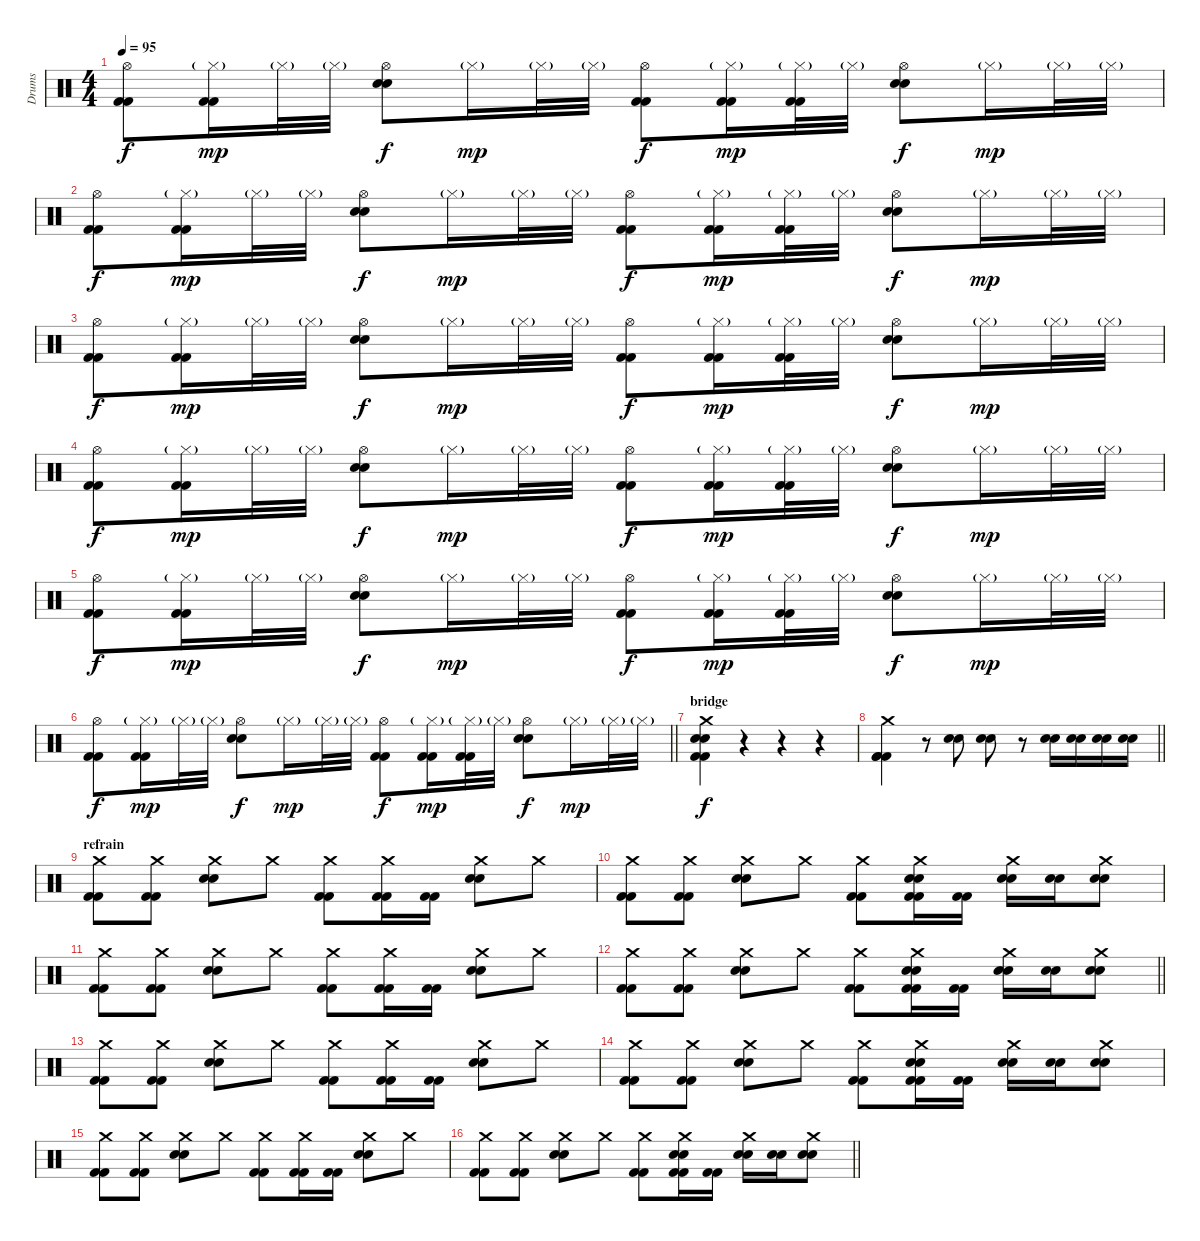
\track ("Drums" "Drums") {instrument percussion}
\staff {score}
\articulation defaults
\ts (4 4)
\tempo 95
\clef neutral
\ks c
("Hi-Hat (open)" "Kick (hit) 2" "Kick (hit) 2").8{dy f} ("Hi-Hat (closed)"{g} "Kick (hit) 2" "Kick (hit) 2").16{dy mp} "Hi-Hat (closed)"{g}.32 "Hi-Hat (closed)"{g}.32 ("Hi-Hat (open)" "Snare (hit) 2" "Snare (hit) 2").8{dy f} "Hi-Hat (closed)"{g}.16{dy mp} "Hi-Hat (closed)"{g}.32 "Hi-Hat (closed)"{g}.32 ("Hi-Hat (open)" "Kick (hit) 2" "Kick (hit) 2").8{dy f} ("Hi-Hat (closed)"{g} "Kick (hit) 2" "Kick (hit) 2").16{dy mp} ("Hi-Hat (closed)"{g} "Kick (hit) 2" "Kick (hit) 2").32 "Hi-Hat (closed)"{g}.32 ("Hi-Hat (open)" "Snare (hit) 2" "Snare (hit) 2").8{dy f} "Hi-Hat (closed)"{g}.16{dy mp} "Hi-Hat (closed)"{g}.32 "Hi-Hat (closed)"{g}.32 |
("Hi-Hat (open)" "Kick (hit) 2" "Kick (hit) 2").8{dy f} ("Hi-Hat (closed)"{g} "Kick (hit) 2" "Kick (hit) 2").16{dy mp} "Hi-Hat (closed)"{g}.32 "Hi-Hat (closed)"{g}.32 ("Hi-Hat (open)" "Snare (hit) 2" "Snare (hit) 2").8{dy f} "Hi-Hat (closed)"{g}.16{dy mp} "Hi-Hat (closed)"{g}.32 "Hi-Hat (closed)"{g}.32 ("Hi-Hat (open)" "Kick (hit) 2" "Kick (hit) 2").8{dy f} ("Hi-Hat (closed)"{g} "Kick (hit) 2" "Kick (hit) 2").16{dy mp} ("Hi-Hat (closed)"{g} "Kick (hit) 2" "Kick (hit) 2").32 "Hi-Hat (closed)"{g}.32 ("Hi-Hat (open)" "Snare (hit) 2" "Snare (hit) 2").8{dy f} "Hi-Hat (closed)"{g}.16{dy mp} "Hi-Hat (closed)"{g}.32 "Hi-Hat (closed)"{g}.32 |
("Hi-Hat (open)" "Kick (hit) 2" "Kick (hit) 2").8{dy f} ("Hi-Hat (closed)"{g} "Kick (hit) 2" "Kick (hit) 2").16{dy mp} "Hi-Hat (closed)"{g}.32 "Hi-Hat (closed)"{g}.32 ("Hi-Hat (open)" "Snare (hit) 2" "Snare (hit) 2").8{dy f} "Hi-Hat (closed)"{g}.16{dy mp} "Hi-Hat (closed)"{g}.32 "Hi-Hat (closed)"{g}.32 ("Hi-Hat (open)" "Kick (hit) 2" "Kick (hit) 2").8{dy f} ("Hi-Hat (closed)"{g} "Kick (hit) 2" "Kick (hit) 2").16{dy mp} ("Hi-Hat (closed)"{g} "Kick (hit) 2" "Kick (hit) 2").32 "Hi-Hat (closed)"{g}.32 ("Hi-Hat (open)" "Snare (hit) 2" "Snare (hit) 2").8{dy f} "Hi-Hat (closed)"{g}.16{dy mp} "Hi-Hat (closed)"{g}.32 "Hi-Hat (closed)"{g}.32 |
("Hi-Hat (open)" "Kick (hit) 2" "Kick (hit) 2").8{dy f} ("Hi-Hat (closed)"{g} "Kick (hit) 2" "Kick (hit) 2").16{dy mp} "Hi-Hat (closed)"{g}.32 "Hi-Hat (closed)"{g}.32 ("Hi-Hat (open)" "Snare (hit) 2" "Snare (hit) 2").8{dy f} "Hi-Hat (closed)"{g}.16{dy mp} "Hi-Hat (closed)"{g}.32 "Hi-Hat (closed)"{g}.32 ("Hi-Hat (open)" "Kick (hit) 2" "Kick (hit) 2").8{dy f} ("Hi-Hat (closed)"{g} "Kick (hit) 2" "Kick (hit) 2").16{dy mp} ("Hi-Hat (closed)"{g} "Kick (hit) 2" "Kick (hit) 2").32 "Hi-Hat (closed)"{g}.32 ("Hi-Hat (open)" "Snare (hit) 2" "Snare (hit) 2").8{dy f} "Hi-Hat (closed)"{g}.16{dy mp} "Hi-Hat (closed)"{g}.32 "Hi-Hat (closed)"{g}.32 |
("Hi-Hat (open)" "Kick (hit) 2" "Kick (hit) 2").8{dy f} ("Hi-Hat (closed)"{g} "Kick (hit) 2" "Kick (hit) 2").16{dy mp} "Hi-Hat (closed)"{g}.32 "Hi-Hat (closed)"{g}.32 ("Hi-Hat (open)" "Snare (hit) 2" "Snare (hit) 2").8{dy f} "Hi-Hat (closed)"{g}.16{dy mp} "Hi-Hat (closed)"{g}.32 "Hi-Hat (closed)"{g}.32 ("Hi-Hat (open)" "Kick (hit) 2" "Kick (hit) 2").8{dy f} ("Hi-Hat (closed)"{g} "Kick (hit) 2" "Kick (hit) 2").16{dy mp} ("Hi-Hat (closed)"{g} "Kick (hit) 2" "Kick (hit) 2").32 "Hi-Hat (closed)"{g}.32 ("Hi-Hat (open)" "Snare (hit) 2" "Snare (hit) 2").8{dy f} "Hi-Hat (closed)"{g}.16{dy mp} "Hi-Hat (closed)"{g}.32 "Hi-Hat (closed)"{g}.32 |
\barLineRight lightlight
("Hi-Hat (open)" "Kick (hit) 2" "Kick (hit) 2").8{dy f} ("Hi-Hat (closed)"{g} "Kick (hit) 2" "Kick (hit) 2").16{dy mp} "Hi-Hat (closed)"{g}.32 "Hi-Hat (closed)"{g}.32 ("Hi-Hat (open)" "Snare (hit) 2" "Snare (hit) 2").8{dy f} "Hi-Hat (closed)"{g}.16{dy mp} "Hi-Hat (closed)"{g}.32 "Hi-Hat (closed)"{g}.32 ("Hi-Hat (open)" "Kick (hit) 2" "Kick (hit) 2").8{dy f} ("Hi-Hat (closed)"{g} "Kick (hit) 2" "Kick (hit) 2").16{dy mp} ("Hi-Hat (closed)"{g} "Kick (hit) 2" "Kick (hit) 2").32 "Hi-Hat (closed)"{g}.32 ("Hi-Hat (open)" "Snare (hit) 2" "Snare (hit) 2").8{dy f} "Hi-Hat (closed)"{g}.16{dy mp} "Hi-Hat (closed)"{g}.32 "Hi-Hat (closed)"{g}.32 |
\section ("" "bridge")
("Crash medium (hit)" "Snare (hit) 2" "Snare (hit) 2" "Kick (hit) 2" "Kick (hit) 2").4{dy f} r.4 r.4 r.4 |
\barLineRight lightlight
("Crash medium (hit)" "Kick (hit) 2" "Kick (hit) 2" "Kick (hit) 2").4 r.8 ("Snare (hit) 2" "Snare (hit) 2").8 ("Snare (hit) 2" "Snare (hit) 2").8 r.8 ("Snare (hit) 2" "Snare (hit) 2").16 ("Snare (hit) 2" "Snare (hit) 2").16 ("Snare (hit) 2" "Snare (hit) 2").16 ("Snare (hit) 2" "Snare (hit) 2").16 |
\section ("" "refrain")
("Crash medium (hit)" "Kick (hit) 2" "Kick (hit) 2").8 ("Crash medium (hit)" "Kick (hit) 2" "Kick (hit) 2").8 ("Crash medium (hit)" "Snare (hit) 2" "Snare (hit) 2").8 "Crash medium (hit)".8 ("Crash medium (hit)" "Kick (hit) 2" "Kick (hit) 2").8 ("Crash medium (hit)" "Kick (hit) 2" "Kick (hit) 2").16 ("Kick (hit) 2" "Kick (hit) 2").16 ("Crash medium (hit)" "Snare (hit) 2" "Snare (hit) 2").8 "Crash medium (hit)".8 |
("Crash medium (hit)" "Kick (hit) 2" "Kick (hit) 2").8 ("Crash medium (hit)" "Kick (hit) 2" "Kick (hit) 2").8 ("Crash medium (hit)" "Snare (hit) 2" "Snare (hit) 2").8 "Crash medium (hit)".8 ("Crash medium (hit)" "Kick (hit) 2" "Kick (hit) 2").8 ("Crash medium (hit)" "Snare (hit) 2" "Snare (hit) 2" "Kick (hit) 2" "Kick (hit) 2").16 ("Kick (hit) 2" "Kick (hit) 2").16 ("Crash medium (hit)" "Snare (hit) 2" "Snare (hit) 2").16 ("Snare (hit) 2" "Snare (hit) 2").16 ("Crash medium (hit)" "Snare (hit) 2" "Snare (hit) 2").8 |
("Crash medium (hit)" "Kick (hit) 2" "Kick (hit) 2").8 ("Crash medium (hit)" "Kick (hit) 2" "Kick (hit) 2").8 ("Crash medium (hit)" "Snare (hit) 2" "Snare (hit) 2").8 "Crash medium (hit)".8 ("Crash medium (hit)" "Kick (hit) 2" "Kick (hit) 2").8 ("Crash medium (hit)" "Kick (hit) 2" "Kick (hit) 2").16 ("Kick (hit) 2" "Kick (hit) 2").16 ("Crash medium (hit)" "Snare (hit) 2" "Snare (hit) 2").8 "Crash medium (hit)".8 |
\barLineRight lightlight
("Crash medium (hit)" "Kick (hit) 2" "Kick (hit) 2").8 ("Crash medium (hit)" "Kick (hit) 2" "Kick (hit) 2").8 ("Crash medium (hit)" "Snare (hit) 2" "Snare (hit) 2").8 "Crash medium (hit)".8 ("Crash medium (hit)" "Kick (hit) 2" "Kick (hit) 2").8 ("Crash medium (hit)" "Snare (hit) 2" "Snare (hit) 2" "Kick (hit) 2" "Kick (hit) 2").16 ("Kick (hit) 2" "Kick (hit) 2").16 ("Crash medium (hit)" "Snare (hit) 2" "Snare (hit) 2").16 ("Snare (hit) 2" "Snare (hit) 2").16 ("Crash medium (hit)" "Snare (hit) 2" "Snare (hit) 2").8 |
("Crash medium (hit)" "Kick (hit) 2" "Kick (hit) 2").8 ("Crash medium (hit)" "Kick (hit) 2" "Kick (hit) 2").8 ("Crash medium (hit)" "Snare (hit) 2" "Snare (hit) 2").8 "Crash medium (hit)".8 ("Crash medium (hit)" "Kick (hit) 2" "Kick (hit) 2").8 ("Crash medium (hit)" "Kick (hit) 2" "Kick (hit) 2").16 ("Kick (hit) 2" "Kick (hit) 2").16 ("Crash medium (hit)" "Snare (hit) 2" "Snare (hit) 2").8 "Crash medium (hit)".8 |
("Crash medium (hit)" "Kick (hit) 2" "Kick (hit) 2").8 ("Crash medium (hit)" "Kick (hit) 2" "Kick (hit) 2").8 ("Crash medium (hit)" "Snare (hit) 2" "Snare (hit) 2").8 "Crash medium (hit)".8 ("Crash medium (hit)" "Kick (hit) 2" "Kick (hit) 2").8 ("Crash medium (hit)" "Snare (hit) 2" "Snare (hit) 2" "Kick (hit) 2" "Kick (hit) 2").16 ("Kick (hit) 2" "Kick (hit) 2").16 ("Crash medium (hit)" "Snare (hit) 2" "Snare (hit) 2").16 ("Snare (hit) 2" "Snare (hit) 2").16 ("Crash medium (hit)" "Snare (hit) 2" "Snare (hit) 2").8 |
("Crash medium (hit)" "Kick (hit) 2" "Kick (hit) 2").8 ("Crash medium (hit)" "Kick (hit) 2" "Kick (hit) 2").8 ("Crash medium (hit)" "Snare (hit) 2" "Snare (hit) 2").8 "Crash medium (hit)".8 ("Crash medium (hit)" "Kick (hit) 2" "Kick (hit) 2").8 ("Crash medium (hit)" "Kick (hit) 2" "Kick (hit) 2").16 ("Kick (hit) 2" "Kick (hit) 2").16 ("Crash medium (hit)" "Snare (hit) 2" "Snare (hit) 2").8 "Crash medium (hit)".8 |
\barLineRight lightlight
("Crash medium (hit)" "Kick (hit) 2" "Kick (hit) 2").8 ("Crash medium (hit)" "Kick (hit) 2" "Kick (hit) 2").8 ("Crash medium (hit)" "Snare (hit) 2" "Snare (hit) 2").8 "Crash medium (hit)".8 ("Crash medium (hit)" "Kick (hit) 2" "Kick (hit) 2").8 ("Crash medium (hit)" "Snare (hit) 2" "Snare (hit) 2" "Kick (hit) 2" "Kick (hit) 2").16 ("Kick (hit) 2" "Kick (hit) 2").16 ("Crash medium (hit)" "Snare (hit) 2" "Snare (hit) 2").16 ("Snare (hit) 2" "Snare (hit) 2").16 ("Crash medium (hit)" "Snare (hit) 2" "Snare (hit) 2").8
